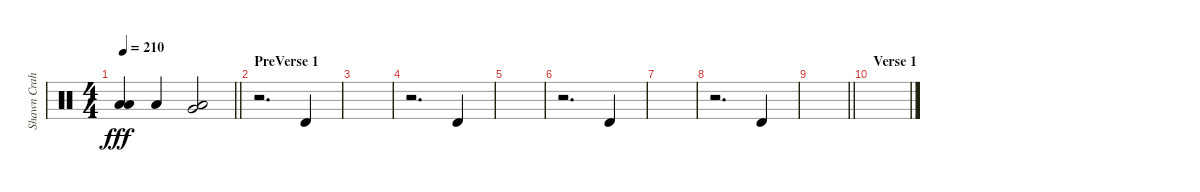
\track ("Shawn Crahan" "Shawn Crah") {instrument percussion}
\staff {score}
\articulation defaults
\ts (4 4)
\tempo 210
\clef neutral
\barLineRight lightlight
\ks c
("Low Floor Tom (hit)" "Low Floor Tom (hit)").4{dy fff} "Low Floor Tom (hit)".4 ("Very Low Tom (hit)" "Low Floor Tom (hit)").2 |
\section ("" "PreVerse 1")
r.2{d} "Timbale high (hit)".4 |
|
r.2{d} "Timbale high (hit)".4 |
|
r.2{d} "Timbale high (hit)".4 |
|
r.2{d} "Timbale high (hit)".4 |
\barLineRight lightlight
|
\section ("" "Verse 1")
